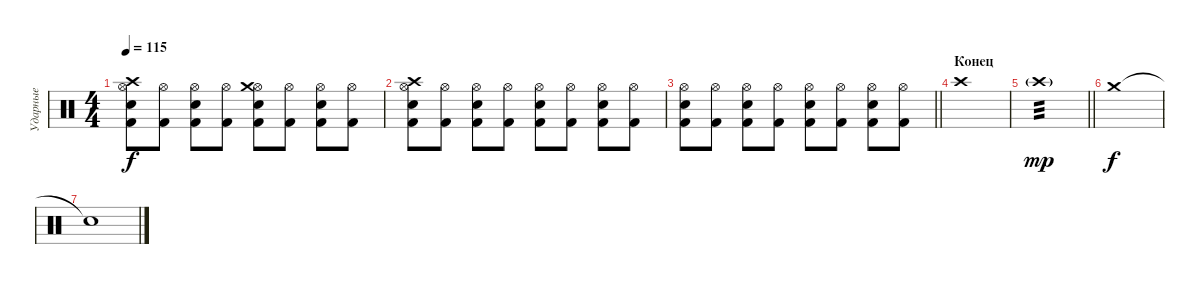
\track ("Ударные" "Ударные") {instrument percussion}
\staff {score}
\articulation defaults
\ts (4 4)
\tempo 115
\clef neutral
\ks c
("Hi-Hat (open)" "Electric Snare (hit)" "Crash high (hit)" "Kick (hit) 2").8{dy f} ("Hi-Hat (open)" "Kick (hit) 2").8 ("Hi-Hat (open)" "Electric Snare (hit)" "Kick (hit) 2").8 ("Hi-Hat (open)" "Kick (hit) 2").8 ("Hi-Hat (open)" "Electric Snare (hit)" "Crash medium (hit)" "Kick (hit) 2").8 ("Hi-Hat (open)" "Kick (hit) 2").8 ("Hi-Hat (open)" "Electric Snare (hit)" "Kick (hit) 2").8 ("Hi-Hat (open)" "Kick (hit) 2").8 |
("Hi-Hat (open)" "Electric Snare (hit)" "Crash high (hit)" "Kick (hit) 2").8 ("Hi-Hat (open)" "Kick (hit) 2").8 ("Hi-Hat (open)" "Electric Snare (hit)" "Kick (hit) 2").8 ("Hi-Hat (open)" "Kick (hit) 2").8 ("Hi-Hat (open)" "Electric Snare (hit)" "Kick (hit) 2").8 ("Hi-Hat (open)" "Kick (hit) 2").8 ("Hi-Hat (open)" "Electric Snare (hit)" "Kick (hit) 2").8 ("Hi-Hat (open)" "Kick (hit) 2").8 |
\barLineRight lightlight
("Hi-Hat (open)" "Electric Snare (hit)" "Kick (hit) 2").8 ("Hi-Hat (open)" "Kick (hit) 2").8 ("Hi-Hat (open)" "Electric Snare (hit)" "Kick (hit) 2").8 ("Hi-Hat (open)" "Kick (hit) 2").8 ("Hi-Hat (open)" "Electric Snare (hit)" "Kick (hit) 2").8 ("Hi-Hat (open)" "Kick (hit) 2").8 ("Hi-Hat (open)" "Electric Snare (hit)" "Kick (hit) 2").8 ("Hi-Hat (open)" "Kick (hit) 2").8 |
\section ("" "Конец")
"Crash high (hit)".1 |
\barLineRight lightlight "Crash high (hit)"{g}.1{tp 3 dy mp}
|
"Crash medium (hit)".1{dy f} |
"Snare (hit)"{t}.1
